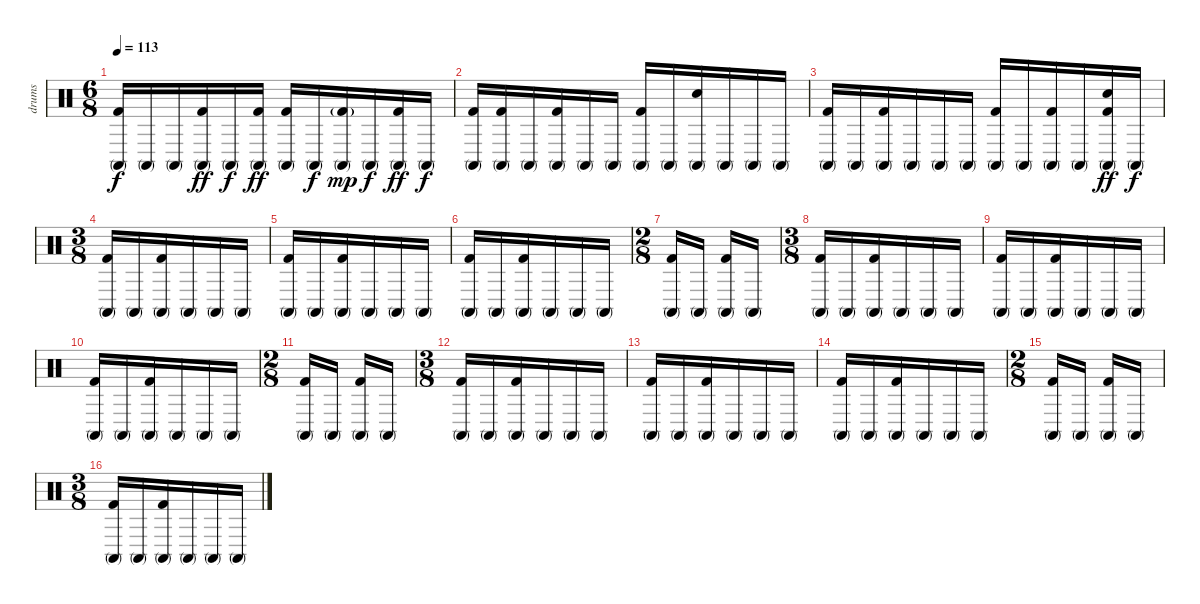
\track ("drums" "drums") {instrument percussion}
\staff {score}
\articulation defaults
\ts (6 8)
\tempo 113
\clef neutral
\ks c
("Conga high (mute)" "Kick (hit) 2").16{dy f} "Conga high (mute)".16 "Conga high (mute)".16 ("Conga high (mute)" "Kick (hit) 2").16{dy ff} "Conga high (mute)".16{dy f} ("Conga high (mute)" "Kick (hit) 2").16{dy ff} ("Conga high (mute)" "Kick (hit) 2").16 "Conga high (mute)".16{dy f} ("Conga high (mute)" "Kick (hit) 2"{g}).16{dy mp} "Conga high (mute)".16{dy f} ("Conga high (mute)" "Kick (hit) 2").16{dy ff} "Conga high (mute)".16{dy f} |
("Conga high (mute)" "Kick (hit) 2").16 ("Conga high (mute)" "Kick (hit) 2").16 "Conga high (mute)".16 ("Conga high (mute)" "Kick (hit) 2").16 "Conga high (mute)".16 "Conga high (mute)".16 ("Conga high (mute)" "Kick (hit) 2").16 "Conga high (mute)".16 ("Conga high (mute)" "Electric Snare (hit)").16 "Conga high (mute)".16 "Conga high (mute)".16 "Conga high (mute)".16 |
("Conga high (mute)" "Kick (hit) 2").16 "Conga high (mute)".16 ("Conga high (mute)" "Kick (hit) 2").16 "Conga high (mute)".16 "Conga high (mute)".16 "Conga high (mute)".16 ("Conga high (mute)" "Kick (hit) 2").16 "Conga high (mute)".16 ("Conga high (mute)" "Kick (hit) 2").16 "Conga high (mute)".16 ("Electric Snare (hit)" "Conga high (mute)" "Kick (hit) 2").16{dy ff} "Conga high (mute)".16{dy f} |
\ts (3 8)
("Conga high (mute)" "Kick (hit) 2").16 "Conga high (mute)".16 ("Conga high (mute)" "Kick (hit) 2").16 "Conga high (mute)".16 "Conga high (mute)".16 "Conga high (mute)".16 |
("Conga high (mute)" "Kick (hit) 2").16 "Conga high (mute)".16 ("Conga high (mute)" "Kick (hit) 2").16 "Conga high (mute)".16 "Conga high (mute)".16 "Conga high (mute)".16 |
("Conga high (mute)" "Kick (hit) 2").16 "Conga high (mute)".16 ("Conga high (mute)" "Kick (hit) 2").16 "Conga high (mute)".16 "Conga high (mute)".16 "Conga high (mute)".16 |
\ts (2 8)
("Conga high (mute)" "Kick (hit) 2").16 "Conga high (mute)".16 ("Conga high (mute)" "Kick (hit) 2").16 "Conga high (mute)".16 |
\ts (3 8)
("Conga high (mute)" "Kick (hit) 2").16 "Conga high (mute)".16 ("Conga high (mute)" "Kick (hit) 2").16 "Conga high (mute)".16 "Conga high (mute)".16 "Conga high (mute)".16 |
("Conga high (mute)" "Kick (hit) 2").16 "Conga high (mute)".16 ("Conga high (mute)" "Kick (hit) 2").16 "Conga high (mute)".16 "Conga high (mute)".16 "Conga high (mute)".16 |
("Conga high (mute)" "Kick (hit) 2").16 "Conga high (mute)".16 ("Conga high (mute)" "Kick (hit) 2").16 "Conga high (mute)".16 "Conga high (mute)".16 "Conga high (mute)".16 |
\ts (2 8)
("Conga high (mute)" "Kick (hit) 2").16 "Conga high (mute)".16 ("Conga high (mute)" "Kick (hit) 2").16 "Conga high (mute)".16 |
\ts (3 8)
("Conga high (mute)" "Kick (hit) 2").16 "Conga high (mute)".16 ("Conga high (mute)" "Kick (hit) 2").16 "Conga high (mute)".16 "Conga high (mute)".16 "Conga high (mute)".16 |
("Conga high (mute)" "Kick (hit) 2").16 "Conga high (mute)".16 ("Conga high (mute)" "Kick (hit) 2").16 "Conga high (mute)".16 "Conga high (mute)".16 "Conga high (mute)".16 |
("Conga high (mute)" "Kick (hit) 2").16 "Conga high (mute)".16 ("Conga high (mute)" "Kick (hit) 2").16 "Conga high (mute)".16 "Conga high (mute)".16 "Conga high (mute)".16 |
\ts (2 8)
("Conga high (mute)" "Kick (hit) 2").16 "Conga high (mute)".16 ("Conga high (mute)" "Kick (hit) 2").16 "Conga high (mute)".16 |
\ts (3 8)
("Conga high (mute)" "Kick (hit) 2").16 "Conga high (mute)".16 ("Conga high (mute)" "Kick (hit) 2").16 "Conga high (mute)".16 "Conga high (mute)".16 "Conga high (mute)".16
